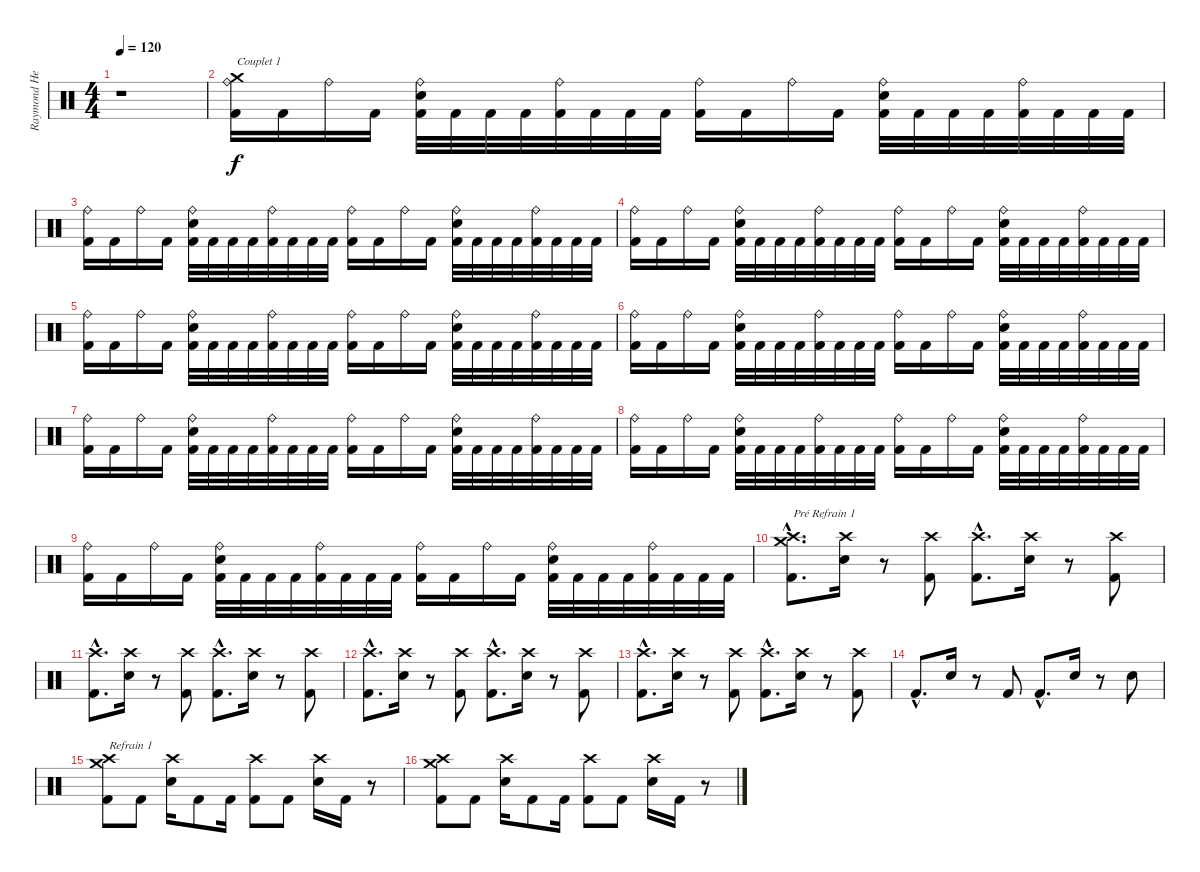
\track ("Raymond Herrera" "Raymond He") {instrument percussion}
\staff {score}
\articulation defaults
\ts (4 4)
\tempo 120
\clef neutral
\ks c
r.1{dy f} |
("Crash medium (hit)" "Ride (bell)" "Kick (hit) 2").16{txt "Couplet 1"} "Kick (hit) 2".16 "Ride (bell)".16 "Kick (hit) 2".16 ("Electric Snare (hit)" "Ride (bell)" "Kick (hit) 2").32 "Kick (hit) 2".32 "Kick (hit) 2".32 "Kick (hit) 2".32 ("Ride (bell)" "Kick (hit) 2").32 "Kick (hit) 2".32 "Kick (hit) 2".32 "Kick (hit) 2".32 ("Ride (bell)" "Kick (hit) 2").16 "Kick (hit) 2".16 "Ride (bell)".16 "Kick (hit) 2".16 ("Electric Snare (hit)" "Ride (bell)" "Kick (hit) 2").32 "Kick (hit) 2".32 "Kick (hit) 2".32 "Kick (hit) 2".32 ("Ride (bell)" "Kick (hit) 2").32 "Kick (hit) 2".32 "Kick (hit) 2".32 "Kick (hit) 2".32 |
("Ride (bell)" "Kick (hit) 2").16 "Kick (hit) 2".16 "Ride (bell)".16 "Kick (hit) 2".16 ("Electric Snare (hit)" "Ride (bell)" "Kick (hit) 2").32 "Kick (hit) 2".32 "Kick (hit) 2".32 "Kick (hit) 2".32 ("Ride (bell)" "Kick (hit) 2").32 "Kick (hit) 2".32 "Kick (hit) 2".32 "Kick (hit) 2".32 ("Ride (bell)" "Kick (hit) 2").16 "Kick (hit) 2".16 "Ride (bell)".16 "Kick (hit) 2".16 ("Electric Snare (hit)" "Ride (bell)" "Kick (hit) 2").32 "Kick (hit) 2".32 "Kick (hit) 2".32 "Kick (hit) 2".32 ("Ride (bell)" "Kick (hit) 2").32 "Kick (hit) 2".32 "Kick (hit) 2".32 "Kick (hit) 2".32 |
("Ride (bell)" "Kick (hit) 2").16 "Kick (hit) 2".16 "Ride (bell)".16 "Kick (hit) 2".16 ("Electric Snare (hit)" "Ride (bell)" "Kick (hit) 2").32 "Kick (hit) 2".32 "Kick (hit) 2".32 "Kick (hit) 2".32 ("Ride (bell)" "Kick (hit) 2").32 "Kick (hit) 2".32 "Kick (hit) 2".32 "Kick (hit) 2".32 ("Ride (bell)" "Kick (hit) 2").16 "Kick (hit) 2".16 "Ride (bell)".16 "Kick (hit) 2".16 ("Electric Snare (hit)" "Ride (bell)" "Kick (hit) 2").32 "Kick (hit) 2".32 "Kick (hit) 2".32 "Kick (hit) 2".32 ("Ride (bell)" "Kick (hit) 2").32 "Kick (hit) 2".32 "Kick (hit) 2".32 "Kick (hit) 2".32 |
("Ride (bell)" "Kick (hit) 2").16 "Kick (hit) 2".16 "Ride (bell)".16 "Kick (hit) 2".16 ("Electric Snare (hit)" "Ride (bell)" "Kick (hit) 2").32 "Kick (hit) 2".32 "Kick (hit) 2".32 "Kick (hit) 2".32 ("Ride (bell)" "Kick (hit) 2").32 "Kick (hit) 2".32 "Kick (hit) 2".32 "Kick (hit) 2".32 ("Ride (bell)" "Kick (hit) 2").16 "Kick (hit) 2".16 "Ride (bell)".16 "Kick (hit) 2".16 ("Electric Snare (hit)" "Ride (bell)" "Kick (hit) 2").32 "Kick (hit) 2".32 "Kick (hit) 2".32 "Kick (hit) 2".32 ("Ride (bell)" "Kick (hit) 2").32 "Kick (hit) 2".32 "Kick (hit) 2".32 "Kick (hit) 2".32 |
("Ride (bell)" "Kick (hit) 2").16 "Kick (hit) 2".16 "Ride (bell)".16 "Kick (hit) 2".16 ("Electric Snare (hit)" "Ride (bell)" "Kick (hit) 2").32 "Kick (hit) 2".32 "Kick (hit) 2".32 "Kick (hit) 2".32 ("Ride (bell)" "Kick (hit) 2").32 "Kick (hit) 2".32 "Kick (hit) 2".32 "Kick (hit) 2".32 ("Ride (bell)" "Kick (hit) 2").16 "Kick (hit) 2".16 "Ride (bell)".16 "Kick (hit) 2".16 ("Electric Snare (hit)" "Ride (bell)" "Kick (hit) 2").32 "Kick (hit) 2".32 "Kick (hit) 2".32 "Kick (hit) 2".32 ("Ride (bell)" "Kick (hit) 2").32 "Kick (hit) 2".32 "Kick (hit) 2".32 "Kick (hit) 2".32 |
("Ride (bell)" "Kick (hit) 2").16 "Kick (hit) 2".16 "Ride (bell)".16 "Kick (hit) 2".16 ("Electric Snare (hit)" "Ride (bell)" "Kick (hit) 2").32 "Kick (hit) 2".32 "Kick (hit) 2".32 "Kick (hit) 2".32 ("Ride (bell)" "Kick (hit) 2").32 "Kick (hit) 2".32 "Kick (hit) 2".32 "Kick (hit) 2".32 ("Ride (bell)" "Kick (hit) 2").16 "Kick (hit) 2".16 "Ride (bell)".16 "Kick (hit) 2".16 ("Electric Snare (hit)" "Ride (bell)" "Kick (hit) 2").32 "Kick (hit) 2".32 "Kick (hit) 2".32 "Kick (hit) 2".32 ("Ride (bell)" "Kick (hit) 2").32 "Kick (hit) 2".32 "Kick (hit) 2".32 "Kick (hit) 2".32 |
("Ride (bell)" "Kick (hit) 2").16 "Kick (hit) 2".16 "Ride (bell)".16 "Kick (hit) 2".16 ("Electric Snare (hit)" "Ride (bell)" "Kick (hit) 2").32 "Kick (hit) 2".32 "Kick (hit) 2".32 "Kick (hit) 2".32 ("Ride (bell)" "Kick (hit) 2").32 "Kick (hit) 2".32 "Kick (hit) 2".32 "Kick (hit) 2".32 ("Ride (bell)" "Kick (hit) 2").16 "Kick (hit) 2".16 "Ride (bell)".16 "Kick (hit) 2".16 ("Electric Snare (hit)" "Ride (bell)" "Kick (hit) 2").32 "Kick (hit) 2".32 "Kick (hit) 2".32 "Kick (hit) 2".32 ("Ride (bell)" "Kick (hit) 2").32 "Kick (hit) 2".32 "Kick (hit) 2".32 "Kick (hit) 2".32 |
("Ride (bell)" "Kick (hit) 2").16 "Kick (hit) 2".16 "Ride (bell)".16 "Kick (hit) 2".16 ("Electric Snare (hit)" "Ride (bell)" "Kick (hit) 2").32 "Kick (hit) 2".32 "Kick (hit) 2".32 "Kick (hit) 2".32 ("Ride (bell)" "Kick (hit) 2").32 "Kick (hit) 2".32 "Kick (hit) 2".32 "Kick (hit) 2".32 ("Ride (bell)" "Kick (hit) 2").16 "Kick (hit) 2".16 "Ride (bell)".16 "Kick (hit) 2".16 ("Electric Snare (hit)" "Ride (bell)" "Kick (hit) 2").32 "Kick (hit) 2".32 "Kick (hit) 2".32 "Kick (hit) 2".32 ("Ride (bell)" "Kick (hit) 2").32 "Kick (hit) 2".32 "Kick (hit) 2".32 "Kick (hit) 2".32 |
("Crash medium (hit)"{hac} "Crash high (hit)"{hac} "Kick (hit) 2"{hac}).8{d txt "Pré Refrain 1"} ("Crash high (hit)" "Electric Snare (hit)").16 r.8 ("Crash high (hit)" "Kick (hit) 2").8 ("Crash high (hit)"{hac} "Kick (hit) 2"{hac}).8{d} ("Crash high (hit)" "Electric Snare (hit)").16 r.8 ("Crash high (hit)" "Kick (hit) 2").8 |
("Crash high (hit)"{hac} "Kick (hit) 2"{hac}).8{d} ("Crash high (hit)" "Electric Snare (hit)").16 r.8 ("Crash high (hit)" "Kick (hit) 2").8 ("Crash high (hit)"{hac} "Kick (hit) 2"{hac}).8{d} ("Crash high (hit)" "Electric Snare (hit)").16 r.8 ("Crash high (hit)" "Kick (hit) 2").8 |
("Crash high (hit)"{hac} "Kick (hit) 2"{hac}).8{d} ("Crash high (hit)" "Electric Snare (hit)").16 r.8 ("Crash high (hit)" "Kick (hit) 2").8 ("Crash high (hit)"{hac} "Kick (hit) 2"{hac}).8{d} ("Crash high (hit)" "Electric Snare (hit)").16 r.8 ("Crash high (hit)" "Kick (hit) 2").8 |
("Crash high (hit)"{hac} "Kick (hit) 2"{hac}).8{d} ("Crash high (hit)" "Electric Snare (hit)").16 r.8 ("Crash high (hit)" "Kick (hit) 2").8 ("Crash high (hit)"{hac} "Kick (hit) 2"{hac}).8{d} ("Crash high (hit)" "Electric Snare (hit)").16 r.8 ("Crash high (hit)" "Kick (hit) 2").8 |
"Kick (hit) 2"{hac}.8{d} "Electric Snare (hit)".16 r.8 "Kick (hit) 2".8 "Kick (hit) 2"{hac}.8{d} "Electric Snare (hit)".16 r.8 "Electric Snare (hit)".8 |
("Crash medium (hit)" "Crash high (hit)" "Kick (hit) 2").8{txt "Refrain 1"} "Kick (hit) 2".8 ("Crash high (hit)" "Electric Snare (hit)").16 "Kick (hit) 2".8 "Kick (hit) 2".16 ("Crash high (hit)" "Kick (hit) 2").8 "Kick (hit) 2".8 ("Crash high (hit)" "Electric Snare (hit)").16 "Kick (hit) 2".16 r.8 |
("Crash medium (hit)" "Crash high (hit)" "Kick (hit) 2").8 "Kick (hit) 2".8 ("Crash high (hit)" "Electric Snare (hit)").16 "Kick (hit) 2".8 "Kick (hit) 2".16 ("Crash high (hit)" "Kick (hit) 2").8 "Kick (hit) 2".8 ("Crash high (hit)" "Electric Snare (hit)").16 "Kick (hit) 2".16 r.8
